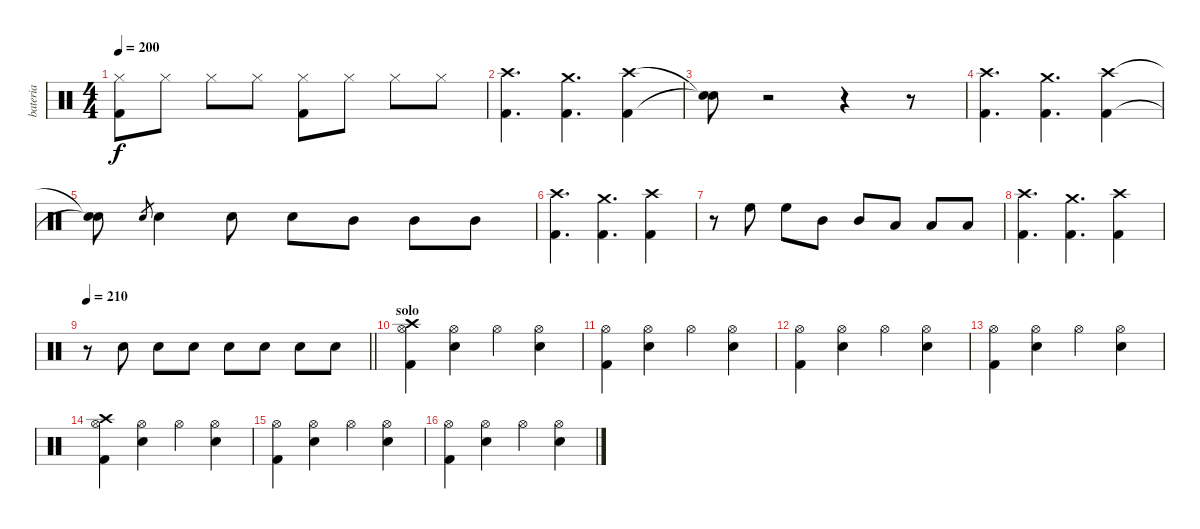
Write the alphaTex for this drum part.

\track ("bateria" "bateria") {instrument percussion}
\staff {score}
\articulation defaults
\ts (4 4)
\tempo 200
\clef neutral
\ks c
("Kick (hit) 2" "Hi-Hat (closed)").8{dy f} "Hi-Hat (closed)".8 "Hi-Hat (closed)".8 "Hi-Hat (closed)".8 ("Kick (hit) 2" "Hi-Hat (closed)").8 "Hi-Hat (closed)".8 "Hi-Hat (closed)".8 "Hi-Hat (closed)".8 |
("Kick (hit) 2" "Crash high (hit)").4{d} ("Kick (hit) 2" "Crash medium (hit)").4{d} ("Kick (hit) 2" "Crash high (hit)").4 |
("Snare (hit)"{t} "Snare (hit)"{t}).8 r.2 r.4 r.8 |
("Kick (hit) 2" "Crash high (hit)").4{d} ("Kick (hit) 2" "Crash medium (hit)").4{d} ("Kick (hit) 2" "Crash high (hit)").4 |
("Snare (hit)"{t} "Snare (hit)"{t}).8 "Electric Snare (hit)".8{gr} "Electric Snare (hit)".4 "Electric Snare (hit)".8 "Electric Snare (hit)".8 "Mid Tom (hit)".8 "Mid Tom (hit)".8 "Mid Tom (hit)".8 |
("Kick (hit) 2" "Crash high (hit)").4{d} ("Kick (hit) 2" "Crash medium (hit)").4{d} ("Kick (hit) 2" "Crash high (hit)").4 |
r.8 "High Floor Tom (hit)".8 "High Floor Tom (hit)".8 "Mid Tom (hit)".8 "Mid Tom (hit)".8 "Low Tom (hit)".8 "Low Tom (hit)".8 "Low Tom (hit)".8 |
("Kick (hit) 2" "Crash high (hit)").4{d} ("Kick (hit) 2" "Crash medium (hit)").4{d} ("Kick (hit) 2" "Crash high (hit)").4 |
\tempo 210
\barLineRight lightlight
r.8 "Electric Snare (hit)".8 "Electric Snare (hit)".8 "Electric Snare (hit)".8 "Electric Snare (hit)".8 "Electric Snare (hit)".8 "Electric Snare (hit)".8 "Electric Snare (hit)".8 |
\section ("" "solo")
("Hi-Hat (open)" "Kick (hit) 2" "Crash high (hit)").4 ("Hi-Hat (open)" "Electric Snare (hit)").4 "Hi-Hat (open)".4 ("Hi-Hat (open)" "Electric Snare (hit)").4 |
("Hi-Hat (open)" "Kick (hit) 2").4 ("Hi-Hat (open)" "Electric Snare (hit)").4 "Hi-Hat (open)".4 ("Hi-Hat (open)" "Electric Snare (hit)").4 |
("Hi-Hat (open)" "Kick (hit) 2").4 ("Hi-Hat (open)" "Electric Snare (hit)").4 "Hi-Hat (open)".4 ("Hi-Hat (open)" "Electric Snare (hit)").4 |
("Hi-Hat (open)" "Kick (hit) 2").4 ("Hi-Hat (open)" "Electric Snare (hit)").4 "Hi-Hat (open)".4 ("Hi-Hat (open)" "Electric Snare (hit)").4 |
("Hi-Hat (open)" "Kick (hit) 2" "Crash high (hit)").4 ("Hi-Hat (open)" "Electric Snare (hit)").4 "Hi-Hat (open)".4 ("Hi-Hat (open)" "Electric Snare (hit)").4 |
("Hi-Hat (open)" "Kick (hit) 2").4 ("Hi-Hat (open)" "Electric Snare (hit)").4 "Hi-Hat (open)".4 ("Hi-Hat (open)" "Electric Snare (hit)").4 |
("Hi-Hat (open)" "Kick (hit) 2").4 ("Hi-Hat (open)" "Electric Snare (hit)").4 "Hi-Hat (open)".4 ("Hi-Hat (open)" "Electric Snare (hit)").4
